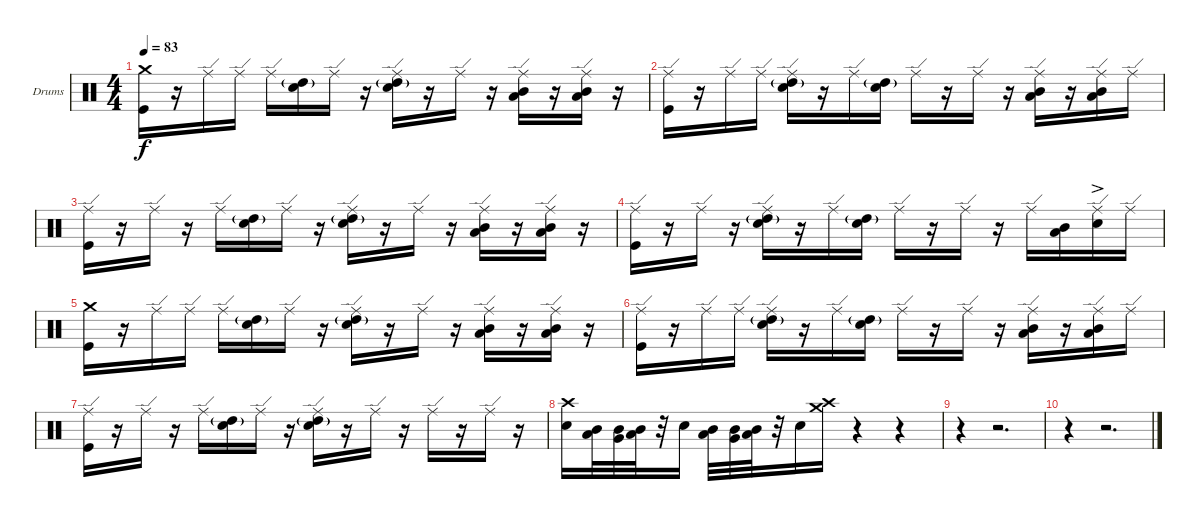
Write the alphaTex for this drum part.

\bracketExtendMode groupsimilarinstruments
\firstSystemTrackNameOrientation horizontal
\otherSystemsTrackNameOrientation horizontal
\track ("Drumkit" "Drums") {instrument percussion}
\staff {score}
\articulation defaults
\ts (4 4)
\tempo 83
\clef neutral
\ks c
("Crash medium (hit)" "Kick (hit)").16{dy f} r.16 "Ride (edge)".16 "Ride (edge)".16 "Ride (edge)".16 ("High Tom (hit)"{g} "Snare (hit) 2").16 "Ride (edge)".16 r.16 ("Ride (edge)" "High Tom (hit)"{g} "Snare (hit) 2").16 r.16 "Ride (edge)".16 r.16 ("Ride (edge)" "Low Tom (hit)" "Mid Tom (hit)").16 r.16 ("Ride (edge)" "Low Tom (hit)" "Mid Tom (hit)").16 r.16 |
("Ride (edge)" "Kick (hit)").16 r.16 "Ride (edge)".16 "Ride (edge)".16 ("Ride (edge)" "High Tom (hit)"{g} "Snare (hit) 2").16 r.16 "Ride (edge)".16 ("High Tom (hit)"{g} "Snare (hit) 2").16 "Ride (edge)".16 r.16 "Ride (edge)".16 r.16 ("Ride (edge)" "Low Tom (hit)" "Mid Tom (hit)").16 r.16 ("Ride (edge)" "Low Tom (hit)" "Mid Tom (hit)").16 "Ride (edge)".16 |
("Ride (edge)" "Kick (hit)").16 r.16 "Ride (edge)".16 r.16 "Ride (edge)".16 ("High Tom (hit)"{g} "Snare (hit) 2").16 "Ride (edge)".16 r.16 ("Ride (edge)" "High Tom (hit)"{g} "Snare (hit) 2").16 r.16 "Ride (edge)".16 r.16 ("Ride (edge)" "Low Tom (hit)" "Mid Tom (hit)").16 r.16 ("Ride (edge)" "Low Tom (hit)" "Mid Tom (hit)").16 r.16 |
("Ride (edge)" "Kick (hit)").16 r.16 "Ride (edge)".16 r.16 ("Ride (edge)" "High Tom (hit)"{g} "Snare (hit) 2").16 r.16 "Ride (edge)".16 ("High Tom (hit)"{g} "Snare (hit) 2").16 "Ride (edge)".16 r.16 "Ride (edge)".16 r.16 "Ride (edge)".16 ("Low Tom (hit)" "Mid Tom (hit)").16 ("Ride (edge)" "Snare (hit) 2"{ac}).16 "Ride (edge)".16 |
("Crash medium (hit)" "Kick (hit)").16 r.16 "Ride (edge)".16 "Ride (edge)".16 "Ride (edge)".16 ("High Tom (hit)"{g} "Snare (hit) 2").16 "Ride (edge)".16 r.16 ("Ride (edge)" "High Tom (hit)"{g} "Snare (hit) 2").16 r.16 "Ride (edge)".16 r.16 ("Ride (edge)" "Low Tom (hit)" "Mid Tom (hit)").16 r.16 ("Ride (edge)" "Low Tom (hit)" "Mid Tom (hit)").16 r.16 |
("Ride (edge)" "Kick (hit)").16 r.16 "Ride (edge)".16 "Ride (edge)".16 ("Ride (edge)" "High Tom (hit)"{g} "Snare (hit) 2").16 r.16 "Ride (edge)".16 ("High Tom (hit)"{g} "Snare (hit) 2").16 "Ride (edge)".16 r.16 "Ride (edge)".16 r.16 ("Ride (edge)" "Low Tom (hit)" "Mid Tom (hit)").16 r.16 ("Ride (edge)" "Low Tom (hit)" "Mid Tom (hit)").16 "Ride (edge)".16 |
("Ride (edge)" "Kick (hit)").16 r.16 "Ride (edge)".16 r.16 "Ride (edge)".16 ("High Tom (hit)"{g} "Snare (hit) 2").16 "Ride (edge)".16 r.16 ("Ride (edge)" "High Tom (hit)"{g} "Snare (hit) 2").16 r.16 "Ride (edge)".16 r.16 "Ride (edge)".16 r.16 "Ride (edge)".16 r.16 |
("Crash high (hit)" "Snare (hit) 2").16 ("Mid Tom (hit)" "Low Tom (hit)").32 ("Mid Tom (hit)" "Very Low Tom (hit)").32 ("Mid Tom (hit)" "Low Tom (hit)").32 r.32 "Snare (hit) 2".16 ("Mid Tom (hit)" "Low Tom (hit)").32 ("Mid Tom (hit)" "Very Low Tom (hit)").32 ("Mid Tom (hit)" "Low Tom (hit)").32 r.32 "Snare (hit) 2".16 ("Crash medium (hit)" "Crash high (hit)").16 r.4 r.4 |
r.4 r.2{d} |
r.4 r.2{d}
